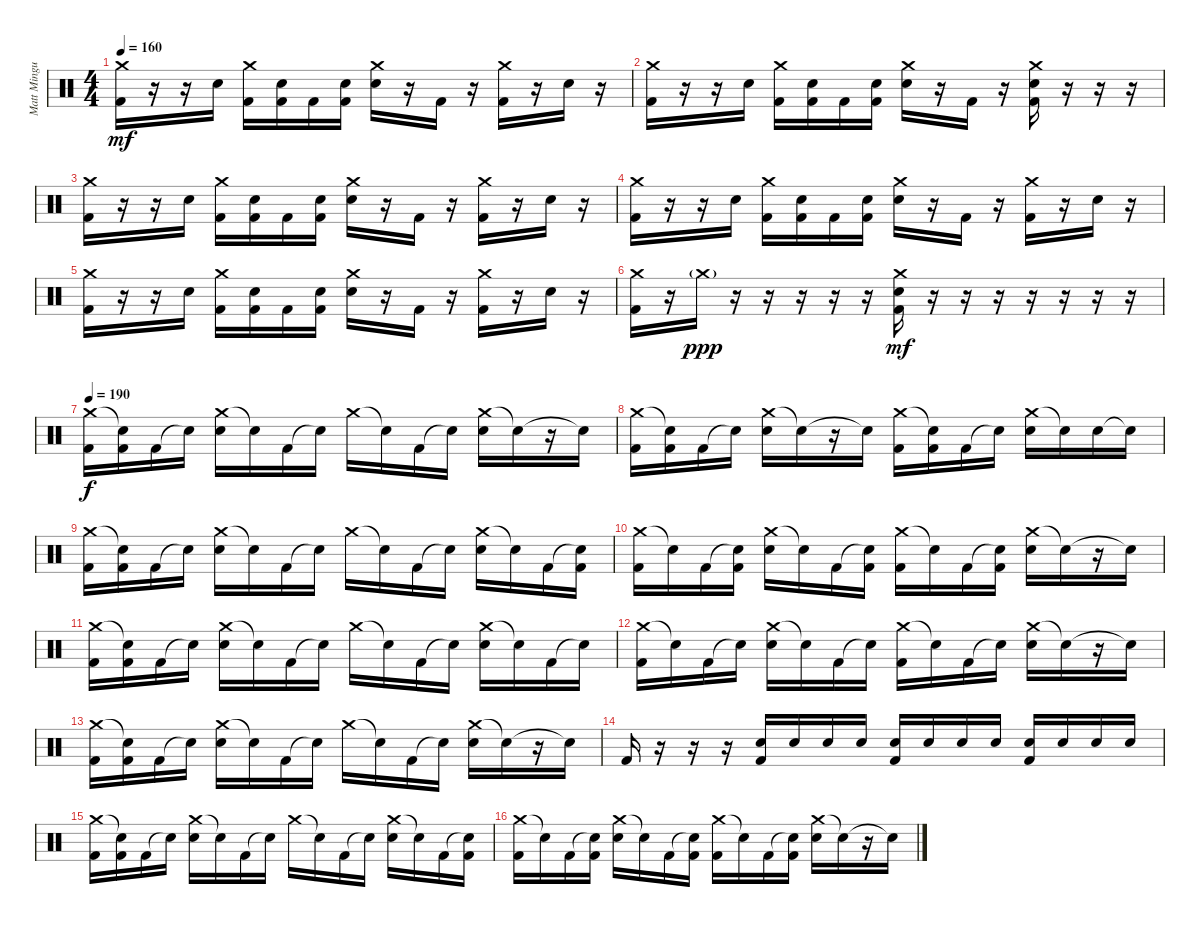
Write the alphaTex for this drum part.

\track ("Matt Mingus" "Matt Mingu") {instrument percussion}
\staff {score}
\articulation defaults
\ts (4 4)
\tempo 160
\clef neutral
\ks c
("Crash medium (hit)" "Kick (hit) 2").16{dy mf} r.16 r.16 "Electric Snare (hit)".16 ("Crash medium (hit)" "Kick (hit) 2").16 ("Electric Snare (hit)" "Kick (hit) 2").16 "Kick (hit) 2".16 ("Electric Snare (hit)" "Kick (hit) 2").16 ("Crash medium (hit)" "Electric Snare (hit)").16 r.16 "Kick (hit) 2".16 r.16 ("Crash medium (hit)" "Kick (hit) 2").16 r.16 "Electric Snare (hit)".16 r.16 |
("Crash medium (hit)" "Kick (hit) 2").16 r.16 r.16 "Electric Snare (hit)".16 ("Crash medium (hit)" "Kick (hit) 2").16 ("Electric Snare (hit)" "Kick (hit) 2").16 "Kick (hit) 2".16 ("Electric Snare (hit)" "Kick (hit) 2").16 ("Crash medium (hit)" "Electric Snare (hit)").16 r.16 "Kick (hit) 2".16 r.16 ("Crash medium (hit)" "Electric Snare (hit)" "Kick (hit) 2").16 r.16 r.16 r.16 |
("Crash medium (hit)" "Kick (hit) 2").16 r.16 r.16 "Electric Snare (hit)".16 ("Crash medium (hit)" "Kick (hit) 2").16 ("Electric Snare (hit)" "Kick (hit) 2").16 "Kick (hit) 2".16 ("Electric Snare (hit)" "Kick (hit) 2").16 ("Crash medium (hit)" "Electric Snare (hit)").16 r.16 "Kick (hit) 2".16 r.16 ("Crash medium (hit)" "Kick (hit) 2").16 r.16 "Electric Snare (hit)".16 r.16 |
("Crash medium (hit)" "Kick (hit) 2").16 r.16 r.16 "Electric Snare (hit)".16 ("Crash medium (hit)" "Kick (hit) 2").16 ("Electric Snare (hit)" "Kick (hit) 2").16 "Kick (hit) 2".16 ("Electric Snare (hit)" "Kick (hit) 2").16 ("Crash medium (hit)" "Electric Snare (hit)").16 r.16 "Kick (hit) 2".16 r.16 ("Crash medium (hit)" "Kick (hit) 2").16 r.16 "Electric Snare (hit)".16 r.16 |
("Crash medium (hit)" "Kick (hit) 2").16 r.16 r.16 "Electric Snare (hit)".16 ("Crash medium (hit)" "Kick (hit) 2").16 ("Electric Snare (hit)" "Kick (hit) 2").16 "Kick (hit) 2".16 ("Electric Snare (hit)" "Kick (hit) 2").16 ("Crash medium (hit)" "Electric Snare (hit)").16 r.16 "Kick (hit) 2".16 r.16 ("Crash medium (hit)" "Kick (hit) 2").16 r.16 "Electric Snare (hit)".16 r.16 |
("Crash medium (hit)" "Kick (hit) 2").16 r.16 "Crash medium (hit)"{g}.16{dy ppp} r.16 r.16 r.16 r.16 r.16 ("Crash medium (hit)" "Electric Snare (hit)" "Kick (hit) 2").16{dy mf} r.16 r.16 r.16 r.16 r.16 r.16 r.16 |
\tempo 190
("Crash medium (hit)" "Kick (hit) 2").16{dy f} ("Snare (hit)"{t} "Kick (hit) 2").16 "Kick (hit) 2".16 "Snare (hit)"{t}.16 ("Crash medium (hit)" "Electric Snare (hit)").16 "Snare (hit)"{t}.16 "Kick (hit) 2".16 "Snare (hit)"{t}.16 "Crash medium (hit)".16 "Snare (hit)"{t}.16 "Kick (hit) 2".16 "Snare (hit)"{t}.16 ("Crash medium (hit)" "Electric Snare (hit)").16 "Snare (hit)"{t}.16 r.16 "Snare (hit)"{t}.16 |
("Crash medium (hit)" "Kick (hit) 2").16 ("Snare (hit)"{t} "Kick (hit) 2").16 "Kick (hit) 2".16 "Snare (hit)"{t}.16 ("Crash medium (hit)" "Electric Snare (hit)").16 "Snare (hit)"{t}.16 r.16 "Snare (hit)"{t}.16 ("Crash medium (hit)" "Kick (hit) 2").16 ("Snare (hit)"{t} "Kick (hit) 2").16 "Kick (hit) 2".16 "Snare (hit)"{t}.16 ("Crash medium (hit)" "Electric Snare (hit)").16 "Snare (hit)"{t}.16 "Electric Snare (hit)".16 "Snare (hit)"{t}.16 |
("Crash medium (hit)" "Kick (hit) 2").16 ("Snare (hit)"{t} "Kick (hit) 2").16 "Kick (hit) 2".16 "Snare (hit)"{t}.16 ("Crash medium (hit)" "Electric Snare (hit)").16 "Snare (hit)"{t}.16 "Kick (hit) 2".16 "Snare (hit)"{t}.16 "Crash medium (hit)".16 "Snare (hit)"{t}.16 "Kick (hit) 2".16 "Snare (hit)"{t}.16 ("Crash medium (hit)" "Electric Snare (hit)").16 "Snare (hit)"{t}.16 "Kick (hit) 2".16 ("Snare (hit)"{t} "Kick (hit) 2").16 |
("Crash medium (hit)" "Kick (hit) 2").16 "Snare (hit)"{t}.16 "Kick (hit) 2".16 ("Snare (hit)"{t} "Kick (hit) 2").16 ("Crash medium (hit)" "Electric Snare (hit)").16 "Snare (hit)"{t}.16 "Kick (hit) 2".16 ("Snare (hit)"{t} "Kick (hit) 2").16 ("Crash medium (hit)" "Kick (hit) 2").16 "Snare (hit)"{t}.16 "Kick (hit) 2".16 ("Snare (hit)"{t} "Kick (hit) 2").16 ("Crash medium (hit)" "Electric Snare (hit)").16 "Snare (hit)"{t}.16 r.16 "Snare (hit)"{t}.16 |
("Crash medium (hit)" "Kick (hit) 2").16 ("Snare (hit)"{t} "Kick (hit) 2").16 "Kick (hit) 2".16 "Snare (hit)"{t}.16 ("Crash medium (hit)" "Electric Snare (hit)").16 "Snare (hit)"{t}.16 "Kick (hit) 2".16 "Snare (hit)"{t}.16 "Crash medium (hit)".16 "Snare (hit)"{t}.16 "Kick (hit) 2".16 "Snare (hit)"{t}.16 ("Crash medium (hit)" "Electric Snare (hit)").16 "Snare (hit)"{t}.16 "Kick (hit) 2".16 "Snare (hit)"{t}.16 |
("Crash medium (hit)" "Kick (hit) 2").16 "Snare (hit)"{t}.16 "Kick (hit) 2".16 "Snare (hit)"{t}.16 ("Crash medium (hit)" "Electric Snare (hit)").16 "Snare (hit)"{t}.16 "Kick (hit) 2".16 "Snare (hit)"{t}.16 ("Crash medium (hit)" "Kick (hit) 2").16 "Snare (hit)"{t}.16 "Kick (hit) 2".16 "Snare (hit)"{t}.16 ("Crash medium (hit)" "Electric Snare (hit)").16 "Snare (hit)"{t}.16 r.16 "Snare (hit)"{t}.16 |
("Crash medium (hit)" "Kick (hit) 2").16 ("Snare (hit)"{t} "Kick (hit) 2").16 "Kick (hit) 2".16 "Snare (hit)"{t}.16 ("Crash medium (hit)" "Electric Snare (hit)").16 "Snare (hit)"{t}.16 "Kick (hit) 2".16 "Snare (hit)"{t}.16 "Crash medium (hit)".16 "Snare (hit)"{t}.16 "Kick (hit) 2".16 "Snare (hit)"{t}.16 ("Crash medium (hit)" "Electric Snare (hit)").16 "Snare (hit)"{t}.16 r.16 "Snare (hit)"{t}.16 |
"Kick (hit) 2".16 r.16 r.16 r.16 ("Electric Snare (hit)" "Kick (hit) 2").16 "Electric Snare (hit)".16 "Electric Snare (hit)".16 "Electric Snare (hit)".16 ("Electric Snare (hit)" "Kick (hit) 2").16 "Electric Snare (hit)".16 "Electric Snare (hit)".16 "Electric Snare (hit)".16 ("Electric Snare (hit)" "Kick (hit) 2").16 "Electric Snare (hit)".16 "Electric Snare (hit)".16 "Electric Snare (hit)".16 |
("Crash medium (hit)" "Kick (hit) 2").16 ("Snare (hit)"{t} "Kick (hit) 2").16 "Kick (hit) 2".16 "Snare (hit)"{t}.16 ("Crash medium (hit)" "Electric Snare (hit)").16 "Snare (hit)"{t}.16 "Kick (hit) 2".16 "Snare (hit)"{t}.16 "Crash medium (hit)".16 "Snare (hit)"{t}.16 "Kick (hit) 2".16 "Snare (hit)"{t}.16 ("Crash medium (hit)" "Electric Snare (hit)").16 "Snare (hit)"{t}.16 "Kick (hit) 2".16 ("Snare (hit)"{t} "Kick (hit) 2").16 |
("Crash medium (hit)" "Kick (hit) 2").16 "Snare (hit)"{t}.16 "Kick (hit) 2".16 ("Snare (hit)"{t} "Kick (hit) 2").16 ("Crash medium (hit)" "Electric Snare (hit)").16 "Snare (hit)"{t}.16 "Kick (hit) 2".16 ("Snare (hit)"{t} "Kick (hit) 2").16 ("Crash medium (hit)" "Kick (hit) 2").16 "Snare (hit)"{t}.16 "Kick (hit) 2".16 ("Snare (hit)"{t} "Kick (hit) 2").16 ("Crash medium (hit)" "Electric Snare (hit)").16 "Snare (hit)"{t}.16 r.16 "Snare (hit)"{t}.16
